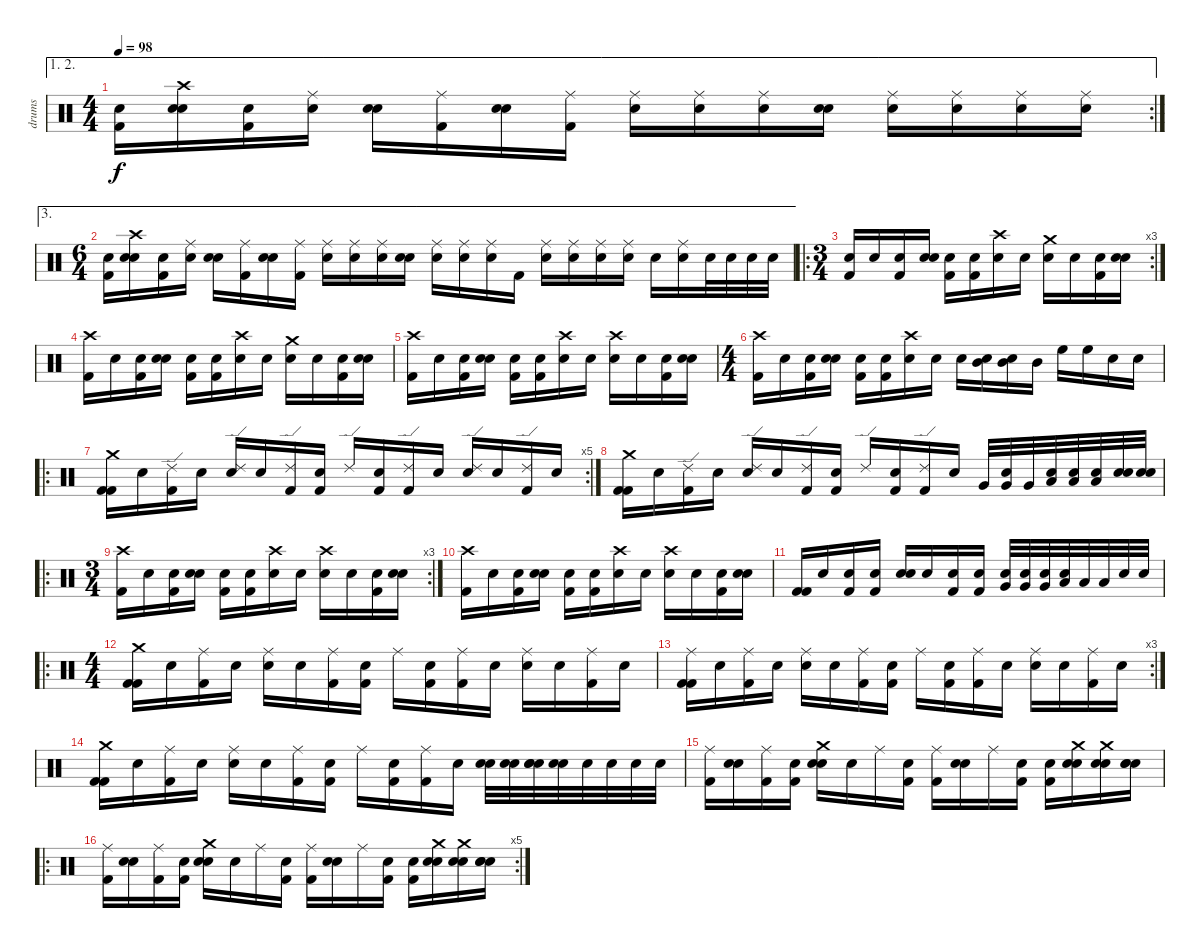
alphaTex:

\track ("drums" "drums") {instrument percussion}
\staff {score}
\articulation defaults
\ae (1 2)
\rc 2
\ts (4 4)
\tempo 98
\clef neutral
\ks c
("Snare (hit)" "Kick (hit) 2").16{dy f} ("Crash high (hit)" "Snare (hit) 2" "Snare (hit)").16 ("Snare (hit)" "Kick (hit) 2").16 ("Ride (middle)" "Snare (hit) 2").16 ("Snare (hit)" "Snare (hit)").16 ("Ride (middle)" "Kick (hit) 2").16 ("Snare (hit)" "Snare (hit)").16 ("Ride (middle)" "Kick (hit) 2").16 ("Ride (middle)" "Snare (hit) 2").16 ("Ride (middle)" "Snare (hit) 2").16 ("Ride (middle)" "Snare (hit) 2").16 ("Snare (hit)" "Snare (hit)").16 ("Ride (middle)" "Snare (hit) 2").16 ("Ride (middle)" "Snare (hit) 2").16 ("Ride (middle)" "Snare (hit) 2").16 ("Ride (middle)" "Snare (hit) 2").16 |
\ae 3
\ts (6 4)
("Snare (hit)" "Kick (hit) 2").16 ("Crash high (hit)" "Snare (hit) 2" "Snare (hit)").16 ("Snare (hit)" "Kick (hit) 2").16 ("Ride (middle)" "Snare (hit) 2").16 ("Snare (hit)" "Snare (hit)").16 ("Ride (middle)" "Kick (hit) 2").16 ("Snare (hit)" "Snare (hit)").16 ("Ride (middle)" "Kick (hit) 2").16 ("Ride (middle)" "Snare (hit) 2").16 ("Ride (middle)" "Snare (hit) 2").16 ("Ride (middle)" "Snare (hit) 2").16 ("Snare (hit)" "Snare (hit)").16 ("Ride (middle)" "Snare (hit) 2").16 ("Ride (middle)" "Snare (hit) 2").16 ("Ride (middle)" "Snare (hit) 2").16 "Kick (hit) 2".16 ("Ride (middle)" "Snare (hit) 2").16 ("Ride (middle)" "Snare (hit) 2").16 ("Ride (middle)" "Snare (hit) 2").16 ("Ride (middle)" "Snare (hit) 2").16 "Snare (hit)".16 ("Ride (middle)" "Snare (hit) 2").16 "Snare (hit) 2".32 "Snare (hit) 2".32 "Snare (hit) 2".32 "Snare (hit) 2".32 |
\ro
\rc 3
\ts (3 4)
("Snare (hit)" "Kick (hit) 2").16 "Snare (hit)".16 ("Snare (hit)" "Kick (hit) 2").16 ("Snare (hit)" "Snare (hit) 2").16 ("Snare (hit)" "Kick (hit) 2").16 ("Snare (hit)" "Kick (hit) 2").16 ("Crash high (hit)" "Snare (hit) 2").16 "Snare (hit)".16 ("Crash medium (hit)" "Snare (hit) 2").16 "Snare (hit)".16 ("Snare (hit)" "Kick (hit) 2").16 ("Snare (hit)" "Snare (hit) 2").16 |
("Crash high (hit)" "Kick (hit) 2").16 "Snare (hit)".16 ("Snare (hit)" "Kick (hit) 2").16 ("Snare (hit)" "Snare (hit) 2").16 ("Snare (hit)" "Kick (hit) 2").16 ("Snare (hit)" "Kick (hit) 2").16 ("Crash high (hit)" "Snare (hit) 2").16 "Snare (hit)".16 ("Crash medium (hit)" "Snare (hit) 2").16 "Snare (hit)".16 ("Snare (hit)" "Kick (hit) 2").16 ("Snare (hit)" "Snare (hit) 2").16 |
("Crash high (hit)" "Kick (hit) 2").16 "Snare (hit)".16 ("Snare (hit)" "Kick (hit) 2").16 ("Snare (hit)" "Snare (hit) 2").16 ("Snare (hit)" "Kick (hit) 2").16 ("Snare (hit)" "Kick (hit) 2").16 ("Crash high (hit)" "Snare (hit) 2").16 "Snare (hit)".16 ("Crash high (hit)" "Snare (hit) 2").16 "Snare (hit)".16 ("Snare (hit)" "Kick (hit) 2").16 ("Snare (hit)" "Snare (hit) 2").16 |
\ts (4 4)
("Crash high (hit)" "Kick (hit) 2").16 "Snare (hit)".16 ("Snare (hit)" "Kick (hit) 2").16 ("Snare (hit)" "Snare (hit) 2").16 ("Snare (hit)" "Kick (hit) 2").16 ("Snare (hit)" "Kick (hit) 2").16 ("Crash high (hit)" "Snare (hit) 2").16 "Snare (hit)".16 "Snare (hit) 2".16 ("Snare (hit)" "Mid Tom (hit)").16 ("Snare (hit)" "Mid Tom (hit)").16 "Mid Tom (hit)".16 "High Floor Tom (hit)".16 "High Floor Tom (hit)".16 "Snare (hit) 2".16 "Snare (hit) 2".16 |
\ro
\rc 5
("Crash medium (hit)" "Kick (hit) 2" "Kick (hit) 2").16 "Snare (hit)".16 ("Ride (edge) 2" "Kick (hit) 2").16 "Snare (hit)".16 ("Ride (edge) 2" "Snare (hit) 2").16 "Snare (hit)".16 ("Ride (edge) 2" "Kick (hit) 2").16 ("Snare (hit)" "Kick (hit) 2").16 "Ride (edge) 2".16 ("Snare (hit)" "Kick (hit) 2").16 ("Ride (edge) 2" "Kick (hit) 2").16 "Snare (hit)".16 ("Ride (edge) 2" "Snare (hit) 2").16 "Snare (hit)".16 ("Ride (edge) 2" "Kick (hit) 2").16 "Snare (hit)".16 |
("Crash medium (hit)" "Kick (hit) 2" "Kick (hit) 2").16 "Snare (hit)".16 ("Ride (edge) 2" "Kick (hit) 2").16 "Snare (hit)".16 ("Ride (edge) 2" "Snare (hit) 2").16 "Snare (hit)".16 ("Ride (edge) 2" "Kick (hit) 2").16 ("Snare (hit)" "Kick (hit) 2").16 "Ride (edge) 2".16 ("Snare (hit)" "Kick (hit) 2").16 ("Ride (edge) 2" "Kick (hit) 2").16 "Snare (hit)".16 "Very Low Tom (hit)".32 ("Snare (hit)" "Very Low Tom (hit)").32 "Very Low Tom (hit)".32 ("Snare (hit)" "Low Floor Tom (hit)").32 ("Snare (hit)" "Low Floor Tom (hit)").32 ("Snare (hit)" "Low Floor Tom (hit)").32 ("Snare (hit)" "Snare (hit) 2").32 ("Snare (hit)" "Snare (hit) 2").32 |
\ro
\rc 3
\ts (3 4)
("Crash high (hit)" "Kick (hit) 2").16 "Snare (hit)".16 ("Snare (hit)" "Kick (hit) 2").16 ("Snare (hit)" "Snare (hit) 2").16 ("Snare (hit)" "Kick (hit) 2").16 ("Snare (hit)" "Kick (hit) 2").16 ("Crash high (hit)" "Snare (hit) 2").16 "Snare (hit)".16 ("Crash high (hit)" "Snare (hit) 2").16 "Snare (hit)".16 ("Snare (hit)" "Kick (hit) 2").16 ("Snare (hit)" "Snare (hit) 2").16 |
("Crash high (hit)" "Kick (hit) 2").16 "Snare (hit)".16 ("Snare (hit)" "Kick (hit) 2").16 ("Snare (hit)" "Snare (hit) 2").16 ("Snare (hit)" "Kick (hit) 2").16 ("Snare (hit)" "Kick (hit) 2").16 ("Crash high (hit)" "Snare (hit) 2").16 "Snare (hit)".16 ("Crash high (hit)" "Snare (hit) 2").16 "Snare (hit)".16 ("Snare (hit)" "Kick (hit) 2").16 ("Snare (hit)" "Snare (hit) 2").16 |
("Kick (hit) 2" "Kick (hit) 2").16 "Snare (hit)".16 ("Snare (hit)" "Kick (hit) 2").16 ("Snare (hit)" "Kick (hit) 2").16 ("Snare (hit)" "Snare (hit)").16 "Snare (hit)".16 ("Snare (hit)" "Kick (hit) 2").16 ("Snare (hit)" "Kick (hit) 2").16 ("Snare (hit)" "Very Low Tom (hit)").32 ("Snare (hit)" "Very Low Tom (hit)").32 ("Snare (hit)" "Very Low Tom (hit)").32 ("Snare (hit)" "Low Floor Tom (hit)").32 "Low Floor Tom (hit)".32 "Low Floor Tom (hit)".32 "Snare (hit) 2".32 "Snare (hit) 2".32 |
\ro
\ts (4 4)
("Crash medium (hit)" "Kick (hit) 2" "Kick (hit) 2").16 "Snare (hit)".16 ("Ride (middle)" "Kick (hit) 2").16 "Snare (hit)".16 ("Ride (middle)" "Snare (hit) 2").16 "Snare (hit)".16 ("Ride (middle)" "Kick (hit) 2").16 ("Snare (hit)" "Kick (hit) 2").16 "Ride (middle)".16 ("Snare (hit)" "Kick (hit) 2").16 ("Ride (middle)" "Kick (hit) 2").16 "Snare (hit)".16 ("Ride (middle)" "Snare (hit) 2").16 "Snare (hit)".16 ("Ride (middle)" "Kick (hit) 2").16 "Snare (hit)".16 |
\rc 3
("Ride (middle)" "Kick (hit) 2" "Kick (hit) 2").16 "Snare (hit)".16 ("Ride (middle)" "Kick (hit) 2").16 "Snare (hit)".16 ("Ride (middle)" "Snare (hit) 2").16 "Snare (hit)".16 ("Ride (middle)" "Kick (hit) 2").16 ("Snare (hit)" "Kick (hit) 2").16 "Ride (middle)".16 ("Snare (hit)" "Kick (hit) 2").16 ("Ride (middle)" "Kick (hit) 2").16 "Snare (hit)".16 ("Ride (middle)" "Snare (hit) 2").16 "Snare (hit)".16 ("Ride (middle)" "Kick (hit) 2").16 "Snare (hit)".16 |
("Crash medium (hit)" "Kick (hit) 2" "Kick (hit) 2").16 "Snare (hit)".16 ("Ride (middle)" "Kick (hit) 2").16 "Snare (hit)".16 ("Ride (middle)" "Snare (hit) 2").16 "Snare (hit)".16 ("Ride (middle)" "Kick (hit) 2").16 ("Snare (hit)" "Kick (hit) 2").16 "Ride (middle)".16 ("Snare (hit)" "Kick (hit) 2").16 ("Ride (middle)" "Kick (hit) 2").16 "Snare (hit)".16 ("Snare (hit)" "Snare (hit) 2").32 ("Snare (hit)" "Snare (hit) 2").32 ("Snare (hit)" "Snare (hit) 2" "Snare (hit)").32 ("Snare (hit)" "Snare (hit) 2").32 "Snare (hit)".32 "Snare (hit) 2".32 "Snare (hit) 2".32 "Snare (hit) 2".32 |
("Ride (middle)" "Kick (hit) 2").16 ("Snare (hit)" "Snare (hit) 2").16 ("Ride (middle)" "Kick (hit) 2").16 ("Snare (hit)" "Kick (hit) 2").16 ("Snare (hit)" "Crash medium (hit)" "Snare (hit) 2").16 "Snare (hit)".16 "Ride (middle)".16 ("Snare (hit)" "Kick (hit) 2").16 ("Ride (middle)" "Kick (hit) 2").16 ("Snare (hit)" "Snare (hit) 2").16 "Ride (middle)".16 ("Snare (hit)" "Kick (hit) 2").16 ("Snare (hit)" "Kick (hit) 2").16 ("Snare (hit)" "Crash medium (hit)" "Snare (hit) 2").16 ("Snare (hit)" "Crash medium (hit)" "Snare (hit) 2").16 ("Snare (hit)" "Snare (hit)" "Snare (hit)").16 |
\ro
\rc 5
("Ride (middle)" "Kick (hit) 2").16 ("Snare (hit)" "Snare (hit) 2").16 ("Ride (middle)" "Kick (hit) 2").16 ("Snare (hit)" "Kick (hit) 2").16 ("Snare (hit)" "Crash medium (hit)" "Snare (hit) 2").16 "Snare (hit)".16 "Ride (middle)".16 ("Snare (hit)" "Kick (hit) 2").16 ("Ride (middle)" "Kick (hit) 2").16 ("Snare (hit)" "Snare (hit) 2").16 "Ride (middle)".16 ("Snare (hit)" "Kick (hit) 2").16 ("Snare (hit)" "Kick (hit) 2").16 ("Snare (hit)" "Crash medium (hit)" "Snare (hit) 2").16 ("Snare (hit)" "Crash medium (hit)" "Snare (hit) 2").16 ("Snare (hit)" "Snare (hit)" "Snare (hit)").16
